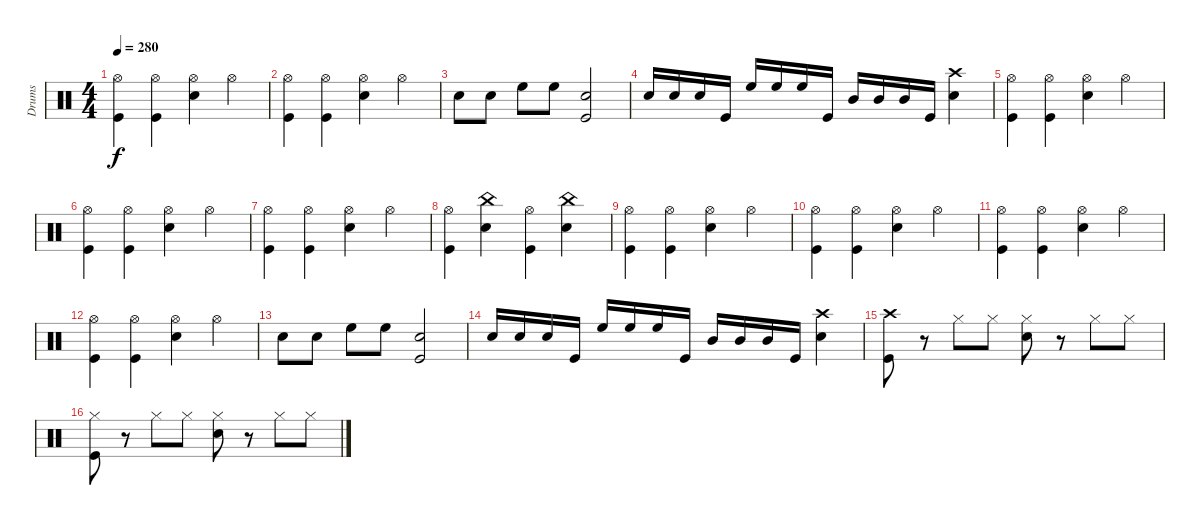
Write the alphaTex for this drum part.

\track ("Drums" "Drums") {instrument percussion}
\staff {score}
\articulation defaults
\ts (4 4)
\tempo 280
\clef neutral
\ks c
("Hi-Hat (open)" "Kick (hit)").4{dy f} ("Hi-Hat (open)" "Kick (hit)").4 ("Hi-Hat (open)" "Electric Snare (hit)").4 "Hi-Hat (open)".4 |
("Hi-Hat (open)" "Kick (hit)").4 ("Hi-Hat (open)" "Kick (hit)").4 ("Hi-Hat (open)" "Electric Snare (hit)").4 "Hi-Hat (open)".4 |
"Electric Snare (hit)".8 "Electric Snare (hit)".8 "High Floor Tom (hit)".8 "High Floor Tom (hit)".8 ("Electric Snare (hit)" "Kick (hit)").2 |
"Electric Snare (hit)".16 "Electric Snare (hit)".16 "Electric Snare (hit)".16 "Kick (hit)".16 "High Floor Tom (hit)".16 "High Floor Tom (hit)".16 "High Floor Tom (hit)".16 "Kick (hit)".16 "Mid Tom (hit)".16 "Mid Tom (hit)".16 "Mid Tom (hit)".16 "Kick (hit)".16 ("Crash high (hit)" "Electric Snare (hit)").4 |
("Hi-Hat (open)" "Kick (hit)").4 ("Hi-Hat (open)" "Kick (hit)").4 ("Hi-Hat (open)" "Electric Snare (hit)").4 "Hi-Hat (open)".4 |
("Hi-Hat (open)" "Kick (hit)").4 ("Hi-Hat (open)" "Kick (hit)").4 ("Hi-Hat (open)" "Electric Snare (hit)").4 "Hi-Hat (open)".4 |
("Hi-Hat (open)" "Kick (hit)").4 ("Hi-Hat (open)" "Kick (hit)").4 ("Hi-Hat (open)" "Electric Snare (hit)").4 "Hi-Hat (open)".4 |
("Hi-Hat (open)" "Kick (hit)").4 ("China (hit)" "Electric Snare (hit)").4 ("Hi-Hat (open)" "Kick (hit)").4 ("China (hit)" "Electric Snare (hit)").4 |
("Hi-Hat (open)" "Kick (hit)").4 ("Hi-Hat (open)" "Kick (hit)").4 ("Hi-Hat (open)" "Electric Snare (hit)").4 "Hi-Hat (open)".4 |
("Hi-Hat (open)" "Kick (hit)").4 ("Hi-Hat (open)" "Kick (hit)").4 ("Hi-Hat (open)" "Electric Snare (hit)").4 "Hi-Hat (open)".4 |
("Hi-Hat (open)" "Kick (hit)").4 ("Hi-Hat (open)" "Kick (hit)").4 ("Hi-Hat (open)" "Electric Snare (hit)").4 "Hi-Hat (open)".4 |
("Hi-Hat (open)" "Kick (hit)").4 ("Hi-Hat (open)" "Kick (hit)").4 ("Hi-Hat (open)" "Electric Snare (hit)").4 "Hi-Hat (open)".4 |
"Electric Snare (hit)".8 "Electric Snare (hit)".8 "High Floor Tom (hit)".8 "High Floor Tom (hit)".8 ("Electric Snare (hit)" "Kick (hit)").2 |
"Electric Snare (hit)".16 "Electric Snare (hit)".16 "Electric Snare (hit)".16 "Kick (hit)".16 "High Floor Tom (hit)".16 "High Floor Tom (hit)".16 "High Floor Tom (hit)".16 "Kick (hit)".16 "Mid Tom (hit)".16 "Mid Tom (hit)".16 "Mid Tom (hit)".16 "Kick (hit)".16 ("Crash high (hit)" "Electric Snare (hit)").4 |
("Crash high (hit)" "Kick (hit)").8 r.8 "Hi-Hat (closed)".8 "Hi-Hat (closed)".8 ("Hi-Hat (closed)" "Electric Snare (hit)").8 r.8 "Hi-Hat (closed)".8 "Hi-Hat (closed)".8 |
("Hi-Hat (closed)" "Kick (hit)").8 r.8 "Hi-Hat (closed)".8 "Hi-Hat (closed)".8 ("Hi-Hat (closed)" "Electric Snare (hit)").8 r.8 "Hi-Hat (closed)".8 "Hi-Hat (closed)".8
